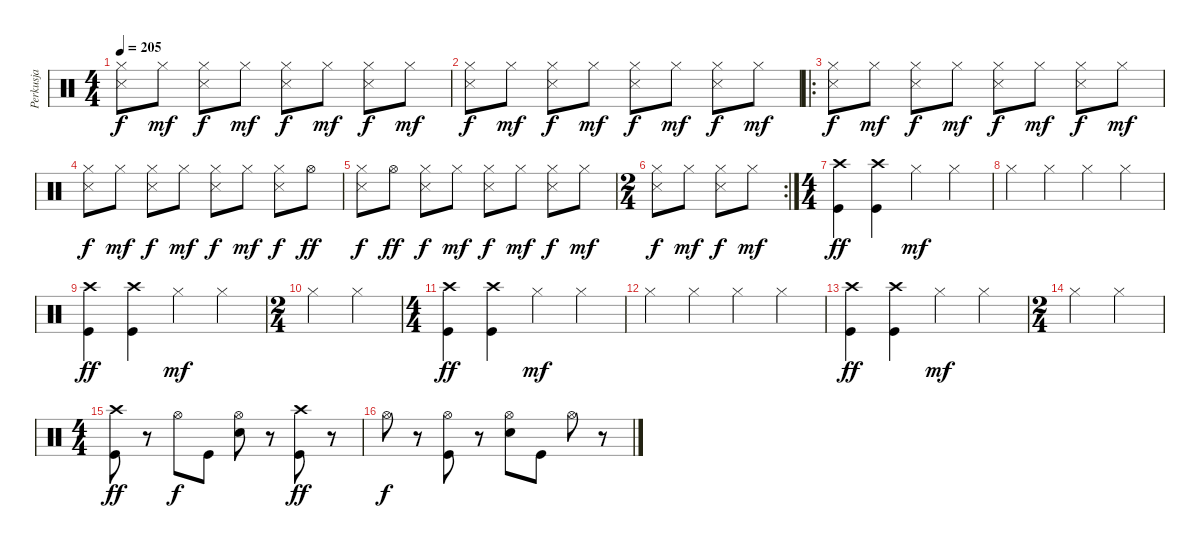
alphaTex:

\track ("Perkusja" "Perkusja") {instrument percussion}
\staff {score}
\articulation defaults
\ts (4 4)
\tempo 205
\clef neutral
\ks c
("Snare (side stick) 3" "Hi-Hat (closed)").8{dy f} "Hi-Hat (closed)".8{dy mf} ("Snare (side stick) 3" "Hi-Hat (closed)").8{dy f} "Hi-Hat (closed)".8{dy mf} ("Snare (side stick) 3" "Hi-Hat (closed)").8{dy f} "Hi-Hat (closed)".8{dy mf} ("Snare (side stick) 3" "Hi-Hat (closed)").8{dy f} "Hi-Hat (closed)".8{dy mf} |
("Snare (side stick) 3" "Hi-Hat (closed)").8{dy f} "Hi-Hat (closed)".8{dy mf} ("Snare (side stick) 3" "Hi-Hat (closed)").8{dy f} "Hi-Hat (closed)".8{dy mf} ("Snare (side stick) 3" "Hi-Hat (closed)").8{dy f} "Hi-Hat (closed)".8{dy mf} ("Snare (side stick) 3" "Hi-Hat (closed)").8{dy f} "Hi-Hat (closed)".8{dy mf} |
\ro
("Snare (side stick) 3" "Hi-Hat (closed)").8{dy f} "Hi-Hat (closed)".8{dy mf} ("Snare (side stick) 3" "Hi-Hat (closed)").8{dy f} "Hi-Hat (closed)".8{dy mf} ("Snare (side stick) 3" "Hi-Hat (closed)").8{dy f} "Hi-Hat (closed)".8{dy mf} ("Snare (side stick) 3" "Hi-Hat (closed)").8{dy f} "Hi-Hat (closed)".8{dy mf} |
("Snare (side stick) 3" "Hi-Hat (closed)").8{dy f} "Hi-Hat (closed)".8{dy mf} ("Snare (side stick) 3" "Hi-Hat (closed)").8{dy f} "Hi-Hat (closed)".8{dy mf} ("Snare (side stick) 3" "Hi-Hat (closed)").8{dy f} "Hi-Hat (closed)".8{dy mf} ("Snare (side stick) 3" "Hi-Hat (closed)").8{dy f} "Hi-Hat (open)".8{dy ff} |
("Snare (side stick) 3" "Hi-Hat (closed)").8{dy f} "Hi-Hat (open)".8{dy ff} ("Snare (side stick) 3" "Hi-Hat (closed)").8{dy f} "Hi-Hat (closed)".8{dy mf} ("Snare (side stick) 3" "Hi-Hat (closed)").8{dy f} "Hi-Hat (closed)".8{dy mf} ("Snare (side stick) 3" "Hi-Hat (closed)").8{dy f} "Hi-Hat (closed)".8{dy mf} |
\rc 2
\ts (2 4)
("Snare (side stick) 3" "Hi-Hat (closed)").8{dy f} "Hi-Hat (closed)".8{dy mf} ("Snare (side stick) 3" "Hi-Hat (closed)").8{dy f} "Hi-Hat (closed)".8{dy mf} |
\ts (4 4)
("Crash high (hit)" "Kick (hit)").4{dy ff} ("Crash high (hit)" "Kick (hit)").4 "Hi-Hat (closed)".4{dy mf} "Hi-Hat (closed)".4 |
"Hi-Hat (closed)".4 "Hi-Hat (closed)".4 "Hi-Hat (closed)".4 "Hi-Hat (closed)".4 |
("Crash high (hit)" "Kick (hit)").4{dy ff} ("Crash high (hit)" "Kick (hit)").4 "Hi-Hat (closed)".4{dy mf} "Hi-Hat (closed)".4 |
\ts (2 4)
"Hi-Hat (closed)".4 "Hi-Hat (closed)".4 |
\ts (4 4)
("Crash high (hit)" "Kick (hit)").4{dy ff} ("Crash high (hit)" "Kick (hit)").4 "Hi-Hat (closed)".4{dy mf} "Hi-Hat (closed)".4 |
"Hi-Hat (closed)".4 "Hi-Hat (closed)".4 "Hi-Hat (closed)".4 "Hi-Hat (closed)".4 |
("Crash high (hit)" "Kick (hit)").4{dy ff} ("Crash high (hit)" "Kick (hit)").4 "Hi-Hat (closed)".4{dy mf} "Hi-Hat (closed)".4 |
\ts (2 4)
"Hi-Hat (closed)".4 "Hi-Hat (closed)".4 |
\ts (4 4)
("Crash high (hit)" "Kick (hit)").8{dy ff} r.8 "Hi-Hat (open)".8{dy f} "Kick (hit)".8 ("Hi-Hat (open)" "Snare (hit) 2").8 r.8 ("Crash high (hit)" "Kick (hit)").8{dy ff} r.8 |
"Hi-Hat (open)".8{dy f} r.8 ("Hi-Hat (open)" "Kick (hit)").8 r.8 ("Hi-Hat (open)" "Snare (hit) 2").8 "Kick (hit)".8 "Hi-Hat (open)".8 r.8
